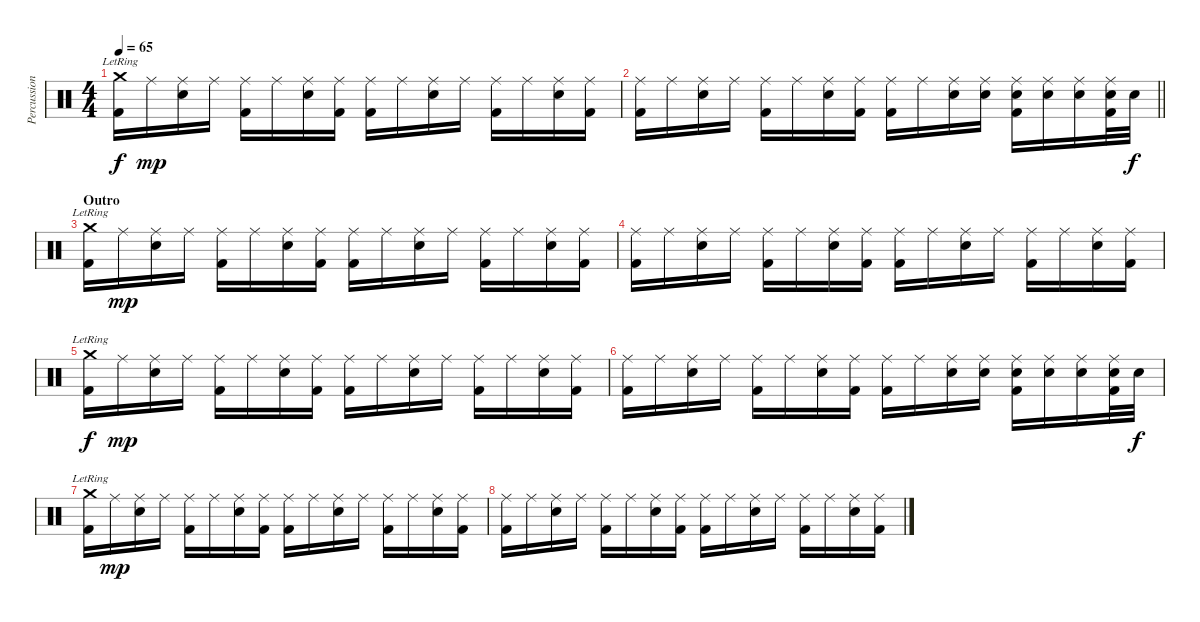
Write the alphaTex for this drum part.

\track ("Percussions" "Percussion") {instrument percussion}
\staff {score}
\articulation defaults
\ts (4 4)
\tempo 65
\clef neutral
\ks c
("Crash medium (hit)"{lr} "Kick (hit) 2").16{dy f} "Ride (middle)".16{dy mp} ("Ride (middle)" "Snare (hit) 2").16 "Ride (middle)".16 ("Ride (middle)" "Kick (hit) 2").16 "Ride (middle)".16 ("Ride (middle)" "Snare (hit) 2").16 ("Ride (middle)" "Kick (hit) 2").16 ("Ride (middle)" "Kick (hit) 2").16 "Ride (middle)".16 ("Ride (middle)" "Snare (hit) 2").16 "Ride (middle)".16 ("Ride (middle)" "Kick (hit) 2").16 "Ride (middle)".16 ("Ride (middle)" "Snare (hit) 2").16 ("Ride (middle)" "Kick (hit) 2").16 |
\barLineRight lightlight
("Ride (middle)" "Kick (hit) 2").16 "Ride (middle)".16 ("Ride (middle)" "Snare (hit) 2").16 "Ride (middle)".16 ("Ride (middle)" "Kick (hit) 2").16 "Ride (middle)".16 ("Ride (middle)" "Snare (hit) 2").16 ("Ride (middle)" "Kick (hit) 2").16 ("Ride (middle)" "Kick (hit) 2").16 "Ride (middle)".16 ("Ride (middle)" "Snare (hit) 2").16 ("Ride (middle)" "Snare (hit) 2").16 ("Ride (middle)" "Snare (hit) 2" "Kick (hit) 2").16 ("Ride (middle)" "Snare (hit) 2").16 ("Ride (middle)" "Snare (hit) 2").16 ("Ride (middle)" "Snare (hit) 2" "Kick (hit) 2").32 "Snare (hit) 2".32{dy f} |
\section ("" "Outro")
("Crash medium (hit)"{lr} "Kick (hit) 2").16{volume 7} "Ride (middle)".16{dy mp} ("Ride (middle)" "Snare (hit) 2").16 "Ride (middle)".16 ("Ride (middle)" "Kick (hit) 2").16 "Ride (middle)".16 ("Ride (middle)" "Snare (hit) 2").16 ("Ride (middle)" "Kick (hit) 2").16 ("Ride (middle)" "Kick (hit) 2").16 "Ride (middle)".16 ("Ride (middle)" "Snare (hit) 2").16 "Ride (middle)".16 ("Ride (middle)" "Kick (hit) 2").16 "Ride (middle)".16 ("Ride (middle)" "Snare (hit) 2").16 ("Ride (middle)" "Kick (hit) 2").16 |
("Ride (middle)" "Kick (hit) 2").16 "Ride (middle)".16 ("Ride (middle)" "Snare (hit) 2").16 "Ride (middle)".16 ("Ride (middle)" "Kick (hit) 2").16 "Ride (middle)".16 ("Ride (middle)" "Snare (hit) 2").16 ("Ride (middle)" "Kick (hit) 2").16 ("Ride (middle)" "Kick (hit) 2").16 "Ride (middle)".16 ("Ride (middle)" "Snare (hit) 2").16 "Ride (middle)".16 ("Ride (middle)" "Kick (hit) 2").16 "Ride (middle)".16 ("Ride (middle)" "Snare (hit) 2").16 ("Ride (middle)" "Kick (hit) 2").16 |
("Crash medium (hit)"{lr} "Kick (hit) 2").16{dy f} "Ride (middle)".16{dy mp} ("Ride (middle)" "Snare (hit) 2").16 "Ride (middle)".16 ("Ride (middle)" "Kick (hit) 2").16 "Ride (middle)".16 ("Ride (middle)" "Snare (hit) 2").16 ("Ride (middle)" "Kick (hit) 2").16 ("Ride (middle)" "Kick (hit) 2").16 "Ride (middle)".16 ("Ride (middle)" "Snare (hit) 2").16 "Ride (middle)".16 ("Ride (middle)" "Kick (hit) 2").16 "Ride (middle)".16 ("Ride (middle)" "Snare (hit) 2").16 ("Ride (middle)" "Kick (hit) 2").16 |
("Ride (middle)" "Kick (hit) 2").16 "Ride (middle)".16 ("Ride (middle)" "Snare (hit) 2").16 "Ride (middle)".16 ("Ride (middle)" "Kick (hit) 2").16 "Ride (middle)".16 ("Ride (middle)" "Snare (hit) 2").16 ("Ride (middle)" "Kick (hit) 2").16 ("Ride (middle)" "Kick (hit) 2").16 "Ride (middle)".16 ("Ride (middle)" "Snare (hit) 2").16 ("Ride (middle)" "Snare (hit) 2").16 ("Ride (middle)" "Snare (hit) 2" "Kick (hit) 2").16 ("Ride (middle)" "Snare (hit) 2").16 ("Ride (middle)" "Snare (hit) 2").16 ("Ride (middle)" "Snare (hit) 2" "Kick (hit) 2").32 "Snare (hit) 2".32{dy f} |
("Crash medium (hit)"{lr} "Kick (hit) 2").16{volume 0} "Ride (middle)".16{dy mp} ("Ride (middle)" "Snare (hit) 2").16 "Ride (middle)".16 ("Ride (middle)" "Kick (hit) 2").16 "Ride (middle)".16 ("Ride (middle)" "Snare (hit) 2").16 ("Ride (middle)" "Kick (hit) 2").16 ("Ride (middle)" "Kick (hit) 2").16 "Ride (middle)".16 ("Ride (middle)" "Snare (hit) 2").16 "Ride (middle)".16 ("Ride (middle)" "Kick (hit) 2").16 "Ride (middle)".16 ("Ride (middle)" "Snare (hit) 2").16 ("Ride (middle)" "Kick (hit) 2").16 |
("Ride (middle)" "Kick (hit) 2").16 "Ride (middle)".16 ("Ride (middle)" "Snare (hit) 2").16 "Ride (middle)".16 ("Ride (middle)" "Kick (hit) 2").16 "Ride (middle)".16 ("Ride (middle)" "Snare (hit) 2").16 ("Ride (middle)" "Kick (hit) 2").16 ("Ride (middle)" "Kick (hit) 2").16 "Ride (middle)".16 ("Ride (middle)" "Snare (hit) 2").16 "Ride (middle)".16 ("Ride (middle)" "Kick (hit) 2").16 "Ride (middle)".16 ("Ride (middle)" "Snare (hit) 2").16 ("Ride (middle)" "Kick (hit) 2").16
